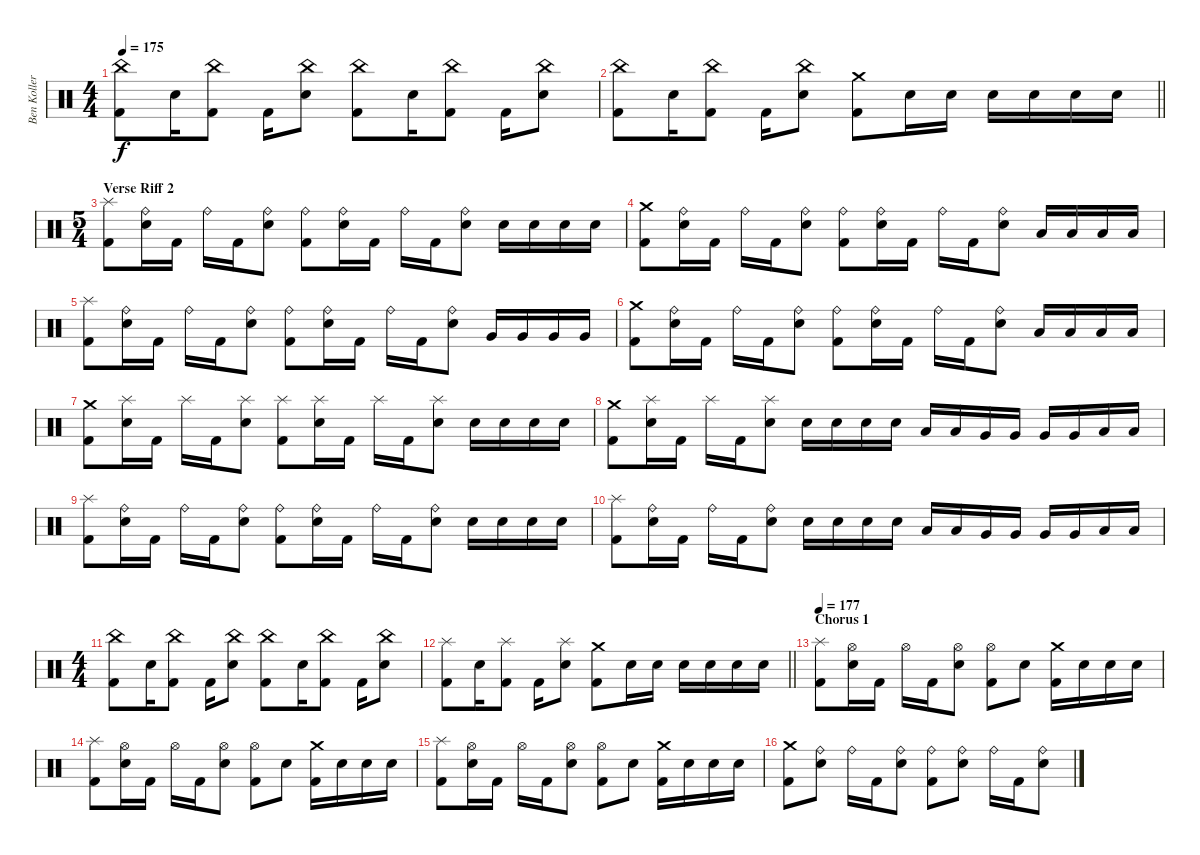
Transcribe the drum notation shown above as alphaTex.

\track ("Ben Koller" "Ben Koller") {instrument percussion}
\staff {score}
\articulation defaults
\ts (4 4)
\tempo 175
\clef neutral
\ks c
("China (hit)" "Kick (hit) 2").8{dy f} "Electric Snare (hit)".16 ("China (hit)" "Kick (hit) 2").8 "Kick (hit) 2".16 ("China (hit)" "Electric Snare (hit)").8 ("China (hit)" "Kick (hit) 2").8 "Electric Snare (hit)".16 ("China (hit)" "Kick (hit) 2").8 "Kick (hit) 2".16 ("China (hit)" "Electric Snare (hit)").8 |
\barLineRight lightlight
("China (hit)" "Kick (hit) 2").8 "Electric Snare (hit)".16 ("China (hit)" "Kick (hit) 2").8 "Kick (hit) 2".16 ("China (hit)" "Electric Snare (hit)").8 ("Crash medium (hit)" "Kick (hit) 2").8 "Electric Snare (hit)".16 "Electric Snare (hit)".16 "Electric Snare (hit)".16 "Electric Snare (hit)".16 "Electric Snare (hit)".16 "Electric Snare (hit)".16 |
\ts (5 4)
\section ("" "Verse Riff 2")
("Splash (hit)" "Kick (hit) 2").8 ("Ride (bell)" "Electric Snare (hit)").16 "Kick (hit) 2".16 "Ride (bell)".16 "Kick (hit) 2".16 ("Ride (bell)" "Electric Snare (hit)").8 ("Ride (bell)" "Kick (hit) 2").8 ("Ride (bell)" "Electric Snare (hit)").16 "Kick (hit) 2".16 "Ride (bell)".16 "Kick (hit) 2".16 ("Ride (bell)" "Electric Snare (hit)").8 "Electric Snare (hit)".16 "Electric Snare (hit)".16 "Electric Snare (hit)".16 "Electric Snare (hit)".16 |
("Crash medium (hit)" "Kick (hit) 2").8 ("Ride (bell)" "Electric Snare (hit)").16 "Kick (hit) 2".16 "Ride (bell)".16 "Kick (hit) 2".16 ("Ride (bell)" "Electric Snare (hit)").8 ("Ride (bell)" "Kick (hit) 2").8 ("Ride (bell)" "Electric Snare (hit)").16 "Kick (hit) 2".16 "Ride (bell)".16 "Kick (hit) 2".16 ("Ride (bell)" "Electric Snare (hit)").8 "Low Tom (hit)".16 "Low Tom (hit)".16 "Low Tom (hit)".16 "Low Tom (hit)".16 |
("Splash (hit)" "Kick (hit) 2").8 ("Ride (bell)" "Electric Snare (hit)").16 "Kick (hit) 2".16 "Ride (bell)".16 "Kick (hit) 2".16 ("Ride (bell)" "Electric Snare (hit)").8 ("Ride (bell)" "Kick (hit) 2").8 ("Ride (bell)" "Electric Snare (hit)").16 "Kick (hit) 2".16 "Ride (bell)".16 "Kick (hit) 2".16 ("Ride (bell)" "Electric Snare (hit)").8 "Very Low Tom (hit)".16 "Very Low Tom (hit)".16 "Very Low Tom (hit)".16 "Very Low Tom (hit)".16 |
("Crash medium (hit)" "Kick (hit) 2").8 ("Ride (bell)" "Electric Snare (hit)").16 "Kick (hit) 2".16 "Ride (bell)".16 "Kick (hit) 2".16 ("Ride (bell)" "Electric Snare (hit)").8 ("Ride (bell)" "Kick (hit) 2").8 ("Ride (bell)" "Electric Snare (hit)").16 "Kick (hit) 2".16 "Ride (bell)".16 "Kick (hit) 2".16 ("Ride (bell)" "Electric Snare (hit)").8 "Low Floor Tom (hit)".16 "Low Floor Tom (hit)".16 "Low Floor Tom (hit)".16 "Low Floor Tom (hit)".16 |
("Crash medium (hit)" "Kick (hit) 2").8 ("Splash (hit)" "Electric Snare (hit)").16 "Kick (hit) 2".16 "Splash (hit)".16 "Kick (hit) 2".16 ("Splash (hit)" "Electric Snare (hit)").8 ("Splash (hit)" "Kick (hit) 2").8 ("Splash (hit)" "Electric Snare (hit)").16 "Kick (hit) 2".16 "Splash (hit)".16 "Kick (hit) 2".16 ("Splash (hit)" "Electric Snare (hit)").8 "Electric Snare (hit)".16 "Electric Snare (hit)".16 "Electric Snare (hit)".16 "Electric Snare (hit)".16 |
("Crash medium (hit)" "Kick (hit) 2").8 ("Splash (hit)" "Electric Snare (hit)").16 "Kick (hit) 2".16 "Splash (hit)".16 "Kick (hit) 2".16 ("Splash (hit)" "Electric Snare (hit)").8 "Electric Snare (hit)".16 "Electric Snare (hit)".16 "Electric Snare (hit)".16 "Electric Snare (hit)".16 "Low Tom (hit)".16 "Low Tom (hit)".16 "Very Low Tom (hit)".16 "Very Low Tom (hit)".16 "Very Low Tom (hit)".16 "Very Low Tom (hit)".16 "Low Floor Tom (hit)".16 "Low Floor Tom (hit)".16 |
("Splash (hit)" "Kick (hit) 2").8 ("Ride (bell)" "Electric Snare (hit)").16 "Kick (hit) 2".16 "Ride (bell)".16 "Kick (hit) 2".16 ("Ride (bell)" "Electric Snare (hit)").8 ("Ride (bell)" "Kick (hit) 2").8 ("Ride (bell)" "Electric Snare (hit)").16 "Kick (hit) 2".16 "Ride (bell)".16 "Kick (hit) 2".16 ("Ride (bell)" "Electric Snare (hit)").8 "Electric Snare (hit)".16 "Electric Snare (hit)".16 "Electric Snare (hit)".16 "Electric Snare (hit)".16 |
("Splash (hit)" "Kick (hit) 2").8 ("Ride (bell)" "Electric Snare (hit)").16 "Kick (hit) 2".16 "Ride (bell)".16 "Kick (hit) 2".16 ("Ride (bell)" "Electric Snare (hit)").8 "Electric Snare (hit)".16 "Electric Snare (hit)".16 "Electric Snare (hit)".16 "Electric Snare (hit)".16 "Low Tom (hit)".16 "Low Tom (hit)".16 "Very Low Tom (hit)".16 "Very Low Tom (hit)".16 "Very Low Tom (hit)".16 "Very Low Tom (hit)".16 "Low Floor Tom (hit)".16 "Low Floor Tom (hit)".16 |
\ts (4 4)
("China (hit)" "Kick (hit) 2").8 "Electric Snare (hit)".16 ("China (hit)" "Kick (hit) 2").8 "Kick (hit) 2".16 ("China (hit)" "Electric Snare (hit)").8 ("China (hit)" "Kick (hit) 2").8 "Electric Snare (hit)".16 ("China (hit)" "Kick (hit) 2").8 "Kick (hit) 2".16 ("China (hit)" "Electric Snare (hit)").8 |
\barLineRight lightlight
("Splash (hit)" "Kick (hit) 2").8 "Electric Snare (hit)".16 ("Splash (hit)" "Kick (hit) 2").8 "Kick (hit) 2".16 ("Splash (hit)" "Electric Snare (hit)").8 ("Crash medium (hit)" "Kick (hit) 2").8 "Electric Snare (hit)".16 "Electric Snare (hit)".16 "Electric Snare (hit)".16 "Electric Snare (hit)".16 "Electric Snare (hit)".16 "Electric Snare (hit)".16 |
\section ("" "Chorus 1")
\tempo 177
("Splash (hit)" "Kick (hit) 2").8 ("Hi-Hat (open)" "Electric Snare (hit)").16 "Kick (hit) 2".16 "Hi-Hat (open)".16 "Kick (hit) 2".16 ("Hi-Hat (open)" "Electric Snare (hit)").8 ("Hi-Hat (open)" "Kick (hit) 2").8 "Electric Snare (hit)".8 ("Crash medium (hit)" "Kick (hit) 2").16 "Electric Snare (hit)".16 "Electric Snare (hit)".16 "Electric Snare (hit)".16 |
("Splash (hit)" "Kick (hit) 2").8 ("Hi-Hat (open)" "Electric Snare (hit)").16 "Kick (hit) 2".16 "Hi-Hat (open)".16 "Kick (hit) 2".16 ("Hi-Hat (open)" "Electric Snare (hit)").8 ("Hi-Hat (open)" "Kick (hit) 2").8 "Electric Snare (hit)".8 ("Crash medium (hit)" "Kick (hit) 2").16 "Electric Snare (hit)".16 "Electric Snare (hit)".16 "Electric Snare (hit)".16 |
("Splash (hit)" "Kick (hit) 2").8 ("Hi-Hat (open)" "Electric Snare (hit)").16 "Kick (hit) 2".16 "Hi-Hat (open)".16 "Kick (hit) 2".16 ("Hi-Hat (open)" "Electric Snare (hit)").8 ("Hi-Hat (open)" "Kick (hit) 2").8 "Electric Snare (hit)".8 ("Crash medium (hit)" "Kick (hit) 2").16 "Electric Snare (hit)".16 "Electric Snare (hit)".16 "Electric Snare (hit)".16 |
("Crash medium (hit)" "Kick (hit) 2").8 ("Ride (bell)" "Electric Snare (hit)").8 "Ride (bell)".16 "Kick (hit) 2".16 ("Ride (bell)" "Electric Snare (hit)").8 ("Ride (bell)" "Kick (hit) 2").8 ("Ride (bell)" "Electric Snare (hit)").8 "Ride (bell)".16 "Kick (hit) 2".16 ("Ride (bell)" "Electric Snare (hit)").8
